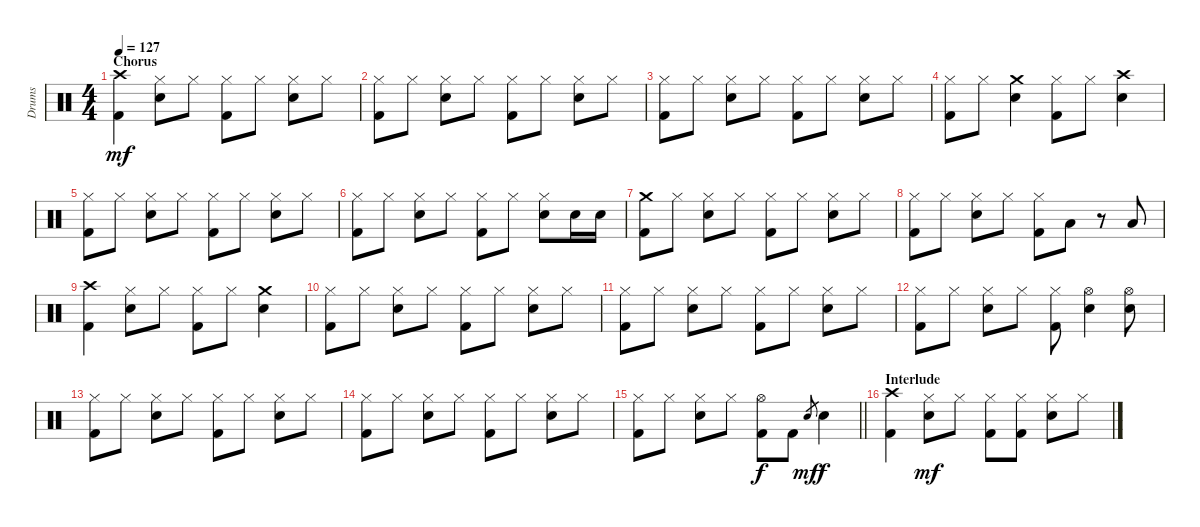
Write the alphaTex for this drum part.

\track ("Drums" "Drums") {instrument percussion}
\staff {score}
\articulation defaults
\ts (4 4)
\section ("" "Chorus")
\tempo 127
\clef neutral
\ks c
("Crash high (hit)" "Kick (hit) 2").4{dy mf} ("Hi-Hat (closed)" "Electric Snare (hit)").8 "Hi-Hat (closed)".8 ("Hi-Hat (closed)" "Kick (hit) 2").8 "Hi-Hat (closed)".8 ("Hi-Hat (closed)" "Electric Snare (hit)").8 "Hi-Hat (closed)".8 |
("Hi-Hat (closed)" "Kick (hit) 2").8 "Hi-Hat (closed)".8 ("Hi-Hat (closed)" "Electric Snare (hit)").8 "Hi-Hat (closed)".8 ("Hi-Hat (closed)" "Kick (hit) 2").8 "Hi-Hat (closed)".8 ("Hi-Hat (closed)" "Electric Snare (hit)").8 "Hi-Hat (closed)".8 |
("Hi-Hat (closed)" "Kick (hit) 2").8 "Hi-Hat (closed)".8 ("Hi-Hat (closed)" "Electric Snare (hit)").8 "Hi-Hat (closed)".8 ("Hi-Hat (closed)" "Kick (hit) 2").8 "Hi-Hat (closed)".8 ("Hi-Hat (closed)" "Electric Snare (hit)").8 "Hi-Hat (closed)".8 |
("Hi-Hat (closed)" "Kick (hit) 2").8 "Hi-Hat (closed)".8 ("Crash medium (hit)" "Electric Snare (hit)").4 ("Hi-Hat (closed)" "Kick (hit) 2").8 "Hi-Hat (closed)".8 ("Crash high (hit)" "Electric Snare (hit)").4 |
("Hi-Hat (closed)" "Kick (hit) 2").8 "Hi-Hat (closed)".8 ("Hi-Hat (closed)" "Electric Snare (hit)").8 "Hi-Hat (closed)".8 ("Hi-Hat (closed)" "Kick (hit) 2").8 "Hi-Hat (closed)".8 ("Hi-Hat (closed)" "Electric Snare (hit)").8 "Hi-Hat (closed)".8 |
("Hi-Hat (closed)" "Kick (hit) 2").8 "Hi-Hat (closed)".8 ("Hi-Hat (closed)" "Electric Snare (hit)").8 "Hi-Hat (closed)".8 ("Hi-Hat (closed)" "Kick (hit) 2").8 "Hi-Hat (closed)".8 ("Hi-Hat (closed)" "Electric Snare (hit)").8 "Electric Snare (hit)".16 "Electric Snare (hit)".16 |
("Crash medium (hit)" "Kick (hit) 2").8 "Hi-Hat (closed)".8 ("Hi-Hat (closed)" "Electric Snare (hit)").8 "Hi-Hat (closed)".8 ("Hi-Hat (closed)" "Kick (hit) 2").8 "Hi-Hat (closed)".8 ("Hi-Hat (closed)" "Electric Snare (hit)").8 "Hi-Hat (closed)".8 |
("Hi-Hat (closed)" "Kick (hit) 2").8 "Hi-Hat (closed)".8 ("Hi-Hat (closed)" "Electric Snare (hit)").8 "Hi-Hat (closed)".8 ("Hi-Hat (closed)" "Kick (hit) 2").8 "Low Tom (hit)".8 r.8 "Low Tom (hit)".8 |
("Crash high (hit)" "Kick (hit) 2").4 ("Hi-Hat (closed)" "Electric Snare (hit)").8 "Hi-Hat (closed)".8 ("Hi-Hat (closed)" "Kick (hit) 2").8 "Hi-Hat (closed)".8 ("Crash medium (hit)" "Electric Snare (hit)").4 |
("Hi-Hat (closed)" "Kick (hit) 2").8 "Hi-Hat (closed)".8 ("Hi-Hat (closed)" "Electric Snare (hit)").8 "Hi-Hat (closed)".8 ("Hi-Hat (closed)" "Kick (hit) 2").8 "Hi-Hat (closed)".8 ("Hi-Hat (closed)" "Electric Snare (hit)").8 "Hi-Hat (closed)".8 |
("Hi-Hat (closed)" "Kick (hit) 2").8 "Hi-Hat (closed)".8 ("Hi-Hat (closed)" "Electric Snare (hit)").8 "Hi-Hat (closed)".8 ("Hi-Hat (closed)" "Kick (hit) 2").8 "Hi-Hat (closed)".8 ("Hi-Hat (closed)" "Electric Snare (hit)").8 "Hi-Hat (closed)".8 |
("Hi-Hat (closed)" "Kick (hit) 2").8 "Hi-Hat (closed)".8 ("Hi-Hat (closed)" "Electric Snare (hit)").8 "Hi-Hat (closed)".8 ("Hi-Hat (closed)" "Kick (hit) 2").8 ("Hi-Hat (open)" "Electric Snare (hit)").4 ("Hi-Hat (open)" "Electric Snare (hit)").8 |
("Hi-Hat (closed)" "Kick (hit) 2").8 "Hi-Hat (closed)".8 ("Hi-Hat (closed)" "Electric Snare (hit)").8 "Hi-Hat (closed)".8 ("Hi-Hat (closed)" "Kick (hit) 2").8 "Hi-Hat (closed)".8 ("Hi-Hat (closed)" "Electric Snare (hit)").8 "Hi-Hat (closed)".8 |
("Hi-Hat (closed)" "Kick (hit) 2").8 "Hi-Hat (closed)".8 ("Hi-Hat (closed)" "Electric Snare (hit)").8 "Hi-Hat (closed)".8 ("Hi-Hat (closed)" "Kick (hit) 2").8 "Hi-Hat (closed)".8 ("Hi-Hat (closed)" "Electric Snare (hit)").8 "Hi-Hat (closed)".8 |
\barLineRight lightlight
("Hi-Hat (closed)" "Kick (hit) 2").8 "Hi-Hat (closed)".8 ("Hi-Hat (closed)" "Electric Snare (hit)").8 "Hi-Hat (closed)".8 ("Hi-Hat (open)" "Kick (hit) 2").8{dy f} "Kick (hit) 2".8 "Electric Snare (hit)".8{gr dy mf} "Electric Snare (hit)".4{dy f} |
\section ("" "Interlude")
("Crash high (hit)" "Kick (hit) 2").4 ("Hi-Hat (closed)" "Electric Snare (hit)").8{dy mf} "Hi-Hat (closed)".8 ("Hi-Hat (closed)" "Kick (hit) 2").8 ("Hi-Hat (closed)" "Kick (hit) 2").8 ("Hi-Hat (closed)" "Electric Snare (hit)").8 "Hi-Hat (closed)".8
